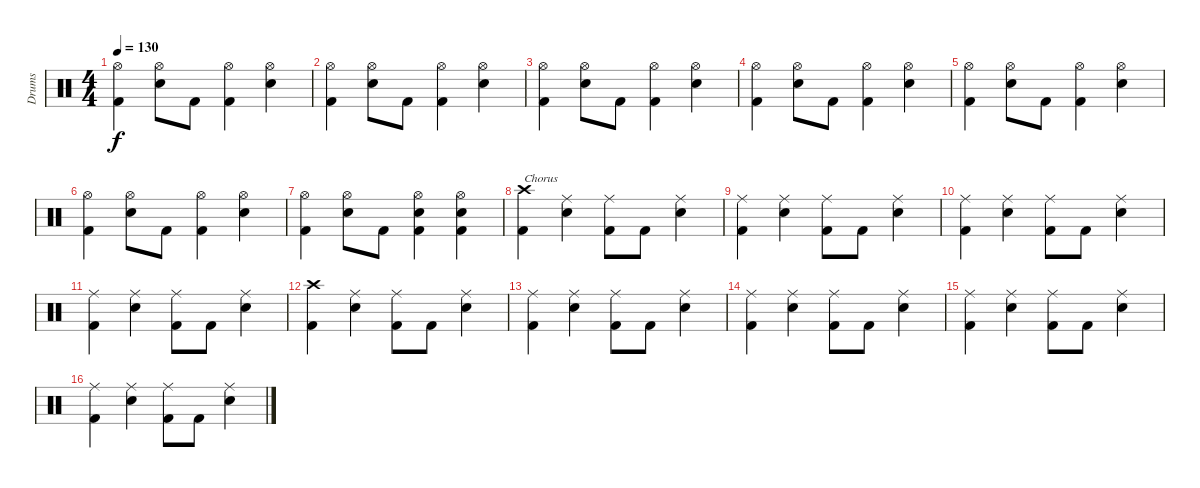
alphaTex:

\track ("Drums" "Drums") {instrument percussion}
\staff {score}
\articulation defaults
\ts (4 4)
\tempo 130
\clef neutral
\ks c
("Hi-Hat (open)" "Kick (hit) 2").4{dy f} ("Hi-Hat (open)" "Snare (hit) 2").8 "Kick (hit) 2".8 ("Hi-Hat (open)" "Kick (hit) 2").4 ("Hi-Hat (open)" "Snare (hit) 2").4 |
("Hi-Hat (open)" "Kick (hit) 2").4 ("Hi-Hat (open)" "Snare (hit) 2").8 "Kick (hit) 2".8 ("Hi-Hat (open)" "Kick (hit) 2").4 ("Hi-Hat (open)" "Snare (hit) 2").4 |
("Hi-Hat (open)" "Kick (hit) 2").4 ("Hi-Hat (open)" "Snare (hit) 2").8 "Kick (hit) 2".8 ("Hi-Hat (open)" "Kick (hit) 2").4 ("Hi-Hat (open)" "Snare (hit) 2").4 |
("Hi-Hat (open)" "Kick (hit) 2").4 ("Hi-Hat (open)" "Snare (hit) 2").8 "Kick (hit) 2".8 ("Hi-Hat (open)" "Kick (hit) 2").4 ("Hi-Hat (open)" "Snare (hit) 2").4 |
("Hi-Hat (open)" "Kick (hit) 2").4 ("Hi-Hat (open)" "Snare (hit) 2").8 "Kick (hit) 2".8 ("Hi-Hat (open)" "Kick (hit) 2").4 ("Hi-Hat (open)" "Snare (hit) 2").4 |
("Hi-Hat (open)" "Kick (hit) 2").4 ("Hi-Hat (open)" "Snare (hit) 2").8 "Kick (hit) 2".8 ("Hi-Hat (open)" "Kick (hit) 2").4 ("Hi-Hat (open)" "Snare (hit) 2").4 |
("Hi-Hat (open)" "Kick (hit) 2").4 ("Hi-Hat (open)" "Snare (hit) 2").8 "Kick (hit) 2".8 ("Hi-Hat (open)" "Snare (hit) 2" "Kick (hit) 2").4 ("Hi-Hat (open)" "Snare (hit) 2" "Kick (hit) 2").4 |
("Crash high (hit)" "Kick (hit) 2").4{txt "Chorus"} ("Ride (middle)" "Snare (hit) 2").4 ("Ride (middle)" "Kick (hit) 2").8 "Kick (hit) 2".8 ("Ride (middle)" "Snare (hit) 2").4 |
("Ride (middle)" "Kick (hit) 2").4 ("Ride (middle)" "Snare (hit) 2").4 ("Ride (middle)" "Kick (hit) 2").8 "Kick (hit) 2".8 ("Ride (middle)" "Snare (hit) 2").4 |
("Ride (middle)" "Kick (hit) 2").4 ("Ride (middle)" "Snare (hit) 2").4 ("Ride (middle)" "Kick (hit) 2").8 "Kick (hit) 2".8 ("Ride (middle)" "Snare (hit) 2").4 |
("Ride (middle)" "Kick (hit) 2").4 ("Ride (middle)" "Snare (hit) 2").4 ("Ride (middle)" "Kick (hit) 2").8 "Kick (hit) 2".8 ("Ride (middle)" "Snare (hit) 2").4 |
("Crash high (hit)" "Kick (hit) 2").4 ("Ride (middle)" "Snare (hit) 2").4 ("Ride (middle)" "Kick (hit) 2").8 "Kick (hit) 2".8 ("Ride (middle)" "Snare (hit) 2").4 |
("Ride (middle)" "Kick (hit) 2").4 ("Ride (middle)" "Snare (hit) 2").4 ("Ride (middle)" "Kick (hit) 2").8 "Kick (hit) 2".8 ("Ride (middle)" "Snare (hit) 2").4 |
("Ride (middle)" "Kick (hit) 2").4 ("Ride (middle)" "Snare (hit) 2").4 ("Ride (middle)" "Kick (hit) 2").8 "Kick (hit) 2".8 ("Ride (middle)" "Snare (hit) 2").4 |
("Ride (middle)" "Kick (hit) 2").4 ("Ride (middle)" "Snare (hit) 2").4 ("Ride (middle)" "Kick (hit) 2").8 "Kick (hit) 2".8 ("Ride (middle)" "Snare (hit) 2").4 |
("Ride (middle)" "Kick (hit) 2").4 ("Ride (middle)" "Snare (hit) 2").4 ("Ride (middle)" "Kick (hit) 2").8 "Kick (hit) 2".8 ("Ride (middle)" "Snare (hit) 2").4
